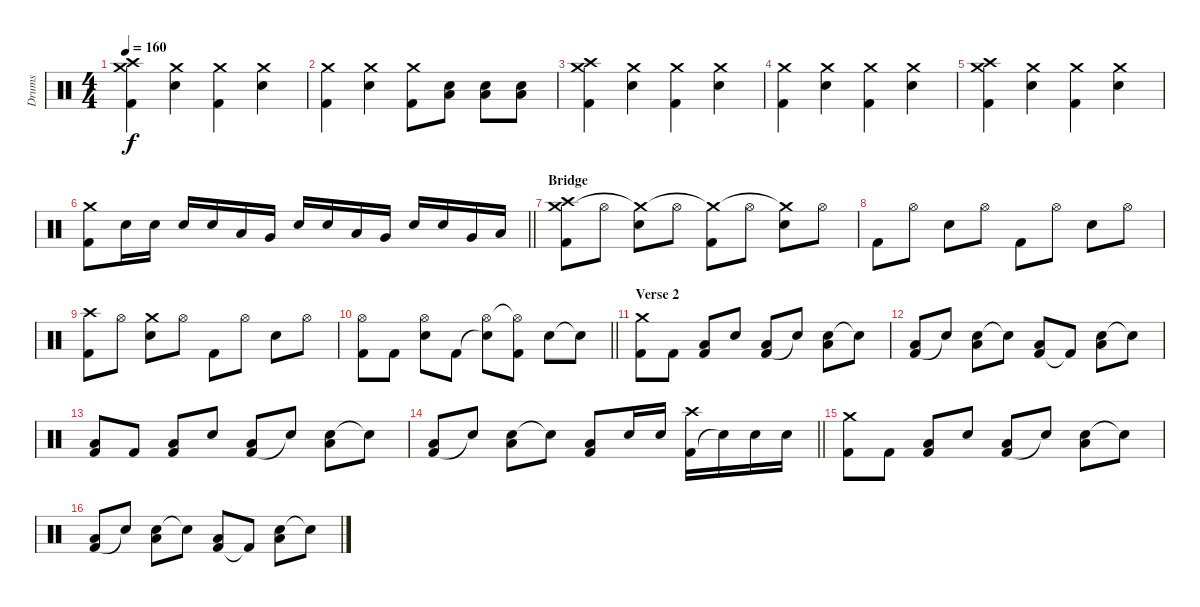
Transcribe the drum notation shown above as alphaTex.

\track ("Drums" "Drums") {instrument percussion}
\staff {score}
\articulation defaults
\ts (4 4)
\tempo 160
\clef neutral
\ks c
("Kick (hit) 2" "Crash medium (hit)" "Crash high (hit)").4{dy f} ("Electric Snare (hit)" "Crash medium (hit)").4 ("Kick (hit) 2" "Crash medium (hit)").4 ("Electric Snare (hit)" "Crash medium (hit)").4 |
("Kick (hit) 2" "Crash medium (hit)").4 ("Electric Snare (hit)" "Crash medium (hit)").4 ("Kick (hit) 2" "Crash medium (hit)").8 ("Electric Snare (hit)" "Low Floor Tom (hit)").8 ("Electric Snare (hit)" "Low Floor Tom (hit)").8 ("Electric Snare (hit)" "Low Floor Tom (hit)").8 |
("Kick (hit) 2" "Crash medium (hit)" "Crash high (hit)").4 ("Electric Snare (hit)" "Crash medium (hit)").4 ("Kick (hit) 2" "Crash medium (hit)").4 ("Electric Snare (hit)" "Crash medium (hit)").4 |
("Kick (hit) 2" "Crash medium (hit)").4 ("Electric Snare (hit)" "Crash medium (hit)").4 ("Kick (hit) 2" "Crash medium (hit)").4 ("Electric Snare (hit)" "Crash medium (hit)").4 |
("Kick (hit) 2" "Crash medium (hit)" "Crash high (hit)").4 ("Electric Snare (hit)" "Crash medium (hit)").4 ("Kick (hit) 2" "Crash medium (hit)").4 ("Electric Snare (hit)" "Crash medium (hit)").4 |
\barLineRight lightlight
("Kick (hit) 2" "Crash medium (hit)").8 "Electric Snare (hit)".16 "Electric Snare (hit)".16 "Electric Snare (hit)".16 "Electric Snare (hit)".16 "Low Tom (hit)".16 "Very Low Tom (hit)".16 "Electric Snare (hit)".16 "Electric Snare (hit)".16 "Low Tom (hit)".16 "Very Low Tom (hit)".16 "Electric Snare (hit)".16 "Electric Snare (hit)".16 "Very Low Tom (hit)".16 "Low Floor Tom (hit)".16 |
\section ("" "Bridge")
("Kick (hit) 2" "Crash medium (hit)" "Crash high (hit)").8 "Hi-Hat (open)".8 ("Electric Snare (hit)" "Crash medium (hit)"{t}).8 "Hi-Hat (open)".8 ("Kick (hit) 2" "Crash medium (hit)"{t}).8 "Hi-Hat (open)".8 ("Electric Snare (hit)" "Crash medium (hit)"{t}).8 "Hi-Hat (open)".8 |
"Kick (hit) 2".8 "Hi-Hat (open)".8 "Electric Snare (hit)".8 "Hi-Hat (open)".8 "Kick (hit) 2".8 "Hi-Hat (open)".8 "Electric Snare (hit)".8 "Hi-Hat (open)".8 |
("Kick (hit) 2" "Crash high (hit)").8 "Hi-Hat (open)".8 ("Electric Snare (hit)" "Crash medium (hit)").8 "Hi-Hat (open)".8 "Kick (hit) 2".8 "Hi-Hat (open)".8 "Electric Snare (hit)".8 "Hi-Hat (open)".8 |
\barLineRight lightlight
("Kick (hit) 2" "Hi-Hat (open)").8 "Kick (hit) 2".8 ("Electric Snare (hit)" "Hi-Hat (open)").8 "Kick (hit) 2".8 ("Snare (hit)"{t} "Hi-Hat (open)").8 ("Kick (hit) 2" "Hi-Hat (open)"{t}).8 "Electric Snare (hit)".8 "Snare (hit)"{t}.8 |
\section ("" "Verse 2")
("Kick (hit) 2" "Crash medium (hit)").8 "Kick (hit) 2".8 ("Kick (hit) 2" "Low Floor Tom (hit)").8 "Electric Snare (hit)".8 ("Kick (hit) 2" "Low Floor Tom (hit)").8 "Snare (hit)"{t}.8 ("Electric Snare (hit)" "Low Floor Tom (hit)").8 "Snare (hit)"{t}.8 |
("Kick (hit) 2" "Low Floor Tom (hit)").8 "Snare (hit)"{t}.8 ("Electric Snare (hit)" "Low Floor Tom (hit)").8 "Snare (hit)"{t}.8 ("Kick (hit) 2" "Low Floor Tom (hit)").8 "Kick (hit) 2"{t}.8 ("Electric Snare (hit)" "Low Floor Tom (hit)").8 "Snare (hit)"{t}.8 |
("Kick (hit) 2" "Low Floor Tom (hit)").8 "Kick (hit) 2".8 ("Kick (hit) 2" "Low Floor Tom (hit)").8 "Electric Snare (hit)".8 ("Kick (hit) 2" "Low Floor Tom (hit)").8 "Snare (hit)"{t}.8 ("Electric Snare (hit)" "Low Floor Tom (hit)").8 "Snare (hit)"{t}.8 |
\barLineRight lightlight
("Kick (hit) 2" "Low Floor Tom (hit)").8 "Snare (hit)"{t}.8 ("Electric Snare (hit)" "Low Floor Tom (hit)").8 "Snare (hit)"{t}.8 ("Kick (hit) 2" "Low Floor Tom (hit)").8 "Electric Snare (hit)".16 "Electric Snare (hit)".16 ("Kick (hit) 2" "Crash high (hit)").16 "Snare (hit)"{t}.16 "Electric Snare (hit)".16 "Electric Snare (hit)".16 |
("Kick (hit) 2" "Crash medium (hit)").8 "Kick (hit) 2".8 ("Kick (hit) 2" "Low Floor Tom (hit)").8 "Electric Snare (hit)".8 ("Kick (hit) 2" "Low Floor Tom (hit)").8 "Snare (hit)"{t}.8 ("Electric Snare (hit)" "Low Floor Tom (hit)").8 "Snare (hit)"{t}.8 |
("Kick (hit) 2" "Low Floor Tom (hit)").8 "Snare (hit)"{t}.8 ("Electric Snare (hit)" "Low Floor Tom (hit)").8 "Snare (hit)"{t}.8 ("Kick (hit) 2" "Low Floor Tom (hit)").8 "Kick (hit) 2"{t}.8 ("Electric Snare (hit)" "Low Floor Tom (hit)").8 "Snare (hit)"{t}.8
